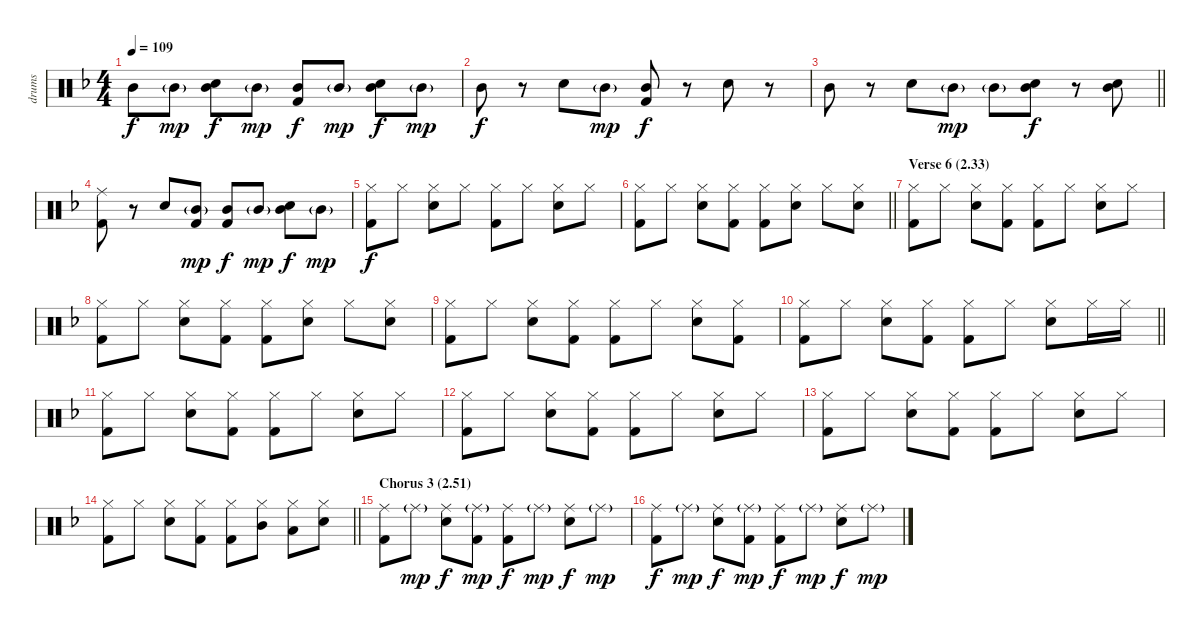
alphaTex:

\track ("drums" "drums") {instrument percussion}
\staff {score}
\articulation defaults
\ts (4 4)
\tempo 109
\clef neutral
\ks f "Mid Tom (hit)".8{dy f} "Mid Tom (hit)"{g}.8{dy mp}
("Mid Tom (hit)" "Electric Snare (hit)").8{dy f} "Mid Tom (hit)"{g}.8{dy mp} ("Mid Tom (hit)" "Kick (hit) 2").8{dy f} "Mid Tom (hit)"{g}.8{dy mp} ("Mid Tom (hit)" "Electric Snare (hit)").8{dy f} "Mid Tom (hit)"{g}.8{dy mp} |
"Mid Tom (hit)".8{dy f} r.8 "Electric Snare (hit)".8 "Mid Tom (hit)"{g}.8{dy mp} ("Mid Tom (hit)" "Kick (hit) 2").8{dy f} r.8 "Electric Snare (hit)".8 r.8 |
\barLineRight lightlight "Mid Tom (hit)".8
r.8 "Electric Snare (hit)".8 "Mid Tom (hit)"{g}.8{dy mp} "Mid Tom (hit)"{g}.8 ("Mid Tom (hit)" "Electric Snare (hit)").8{dy f} r.8 ("Mid Tom (hit)" "Electric Snare (hit)").8 |
("Ride (middle)" "Kick (hit) 2").8 r.8 "Electric Snare (hit)".8 ("Mid Tom (hit)"{g} "Kick (hit) 2").8{dy mp} ("Mid Tom (hit)" "Kick (hit) 2").8{dy f} "Mid Tom (hit)"{g}.8{dy mp} ("Mid Tom (hit)" "Electric Snare (hit)").8{dy f} "Mid Tom (hit)"{g}.8{dy mp} |
("Hi-Hat (closed)" "Kick (hit) 2").8{dy f} "Hi-Hat (closed)".8 ("Hi-Hat (closed)" "Electric Snare (hit)").8 "Hi-Hat (closed)".8 ("Hi-Hat (closed)" "Kick (hit) 2").8 "Hi-Hat (closed)".8 ("Hi-Hat (closed)" "Electric Snare (hit)").8 "Hi-Hat (closed)".8 |
\barLineRight lightlight
("Hi-Hat (closed)" "Kick (hit) 2").8 "Hi-Hat (closed)".8 ("Hi-Hat (closed)" "Electric Snare (hit)").8 ("Hi-Hat (closed)" "Kick (hit) 2").8 ("Hi-Hat (closed)" "Kick (hit) 2").8 ("Hi-Hat (closed)" "Electric Snare (hit)").8 "Hi-Hat (closed)".8 ("Hi-Hat (closed)" "Electric Snare (hit)").8 |
\section ("" "Verse 6 (2.33)")
("Hi-Hat (closed)" "Kick (hit) 2").8 "Hi-Hat (closed)".8 ("Hi-Hat (closed)" "Electric Snare (hit)").8 ("Hi-Hat (closed)" "Kick (hit) 2").8 ("Hi-Hat (closed)" "Kick (hit) 2").8 "Hi-Hat (closed)".8 ("Hi-Hat (closed)" "Electric Snare (hit)").8 "Hi-Hat (closed)".8 |
("Hi-Hat (closed)" "Kick (hit) 2").8 "Hi-Hat (closed)".8 ("Hi-Hat (closed)" "Electric Snare (hit)").8 ("Hi-Hat (closed)" "Kick (hit) 2").8 ("Hi-Hat (closed)" "Kick (hit) 2").8 ("Hi-Hat (closed)" "Electric Snare (hit)").8 "Hi-Hat (closed)".8 ("Hi-Hat (closed)" "Electric Snare (hit)").8 |
("Hi-Hat (closed)" "Kick (hit) 2").8 "Hi-Hat (closed)".8 ("Hi-Hat (closed)" "Electric Snare (hit)").8 ("Hi-Hat (closed)" "Kick (hit) 2").8 ("Hi-Hat (closed)" "Kick (hit) 2").8 "Hi-Hat (closed)".8 ("Hi-Hat (closed)" "Electric Snare (hit)").8 ("Hi-Hat (closed)" "Kick (hit) 2").8 |
\barLineRight lightlight
("Hi-Hat (closed)" "Kick (hit) 2").8 "Hi-Hat (closed)".8 ("Hi-Hat (closed)" "Electric Snare (hit)").8 ("Hi-Hat (closed)" "Kick (hit) 2").8 ("Hi-Hat (closed)" "Kick (hit) 2").8 "Hi-Hat (closed)".8 ("Hi-Hat (closed)" "Electric Snare (hit)").8 "Hi-Hat (closed)".16 "Hi-Hat (closed)".16 |
("Hi-Hat (closed)" "Kick (hit) 2").8 "Hi-Hat (closed)".8 ("Hi-Hat (closed)" "Electric Snare (hit)").8 ("Hi-Hat (closed)" "Kick (hit) 2").8 ("Hi-Hat (closed)" "Kick (hit) 2").8 "Hi-Hat (closed)".8 ("Hi-Hat (closed)" "Electric Snare (hit)").8 "Hi-Hat (closed)".8 |
("Hi-Hat (closed)" "Kick (hit) 2").8 "Hi-Hat (closed)".8 ("Hi-Hat (closed)" "Electric Snare (hit)").8 ("Hi-Hat (closed)" "Kick (hit) 2").8 ("Hi-Hat (closed)" "Kick (hit) 2").8 "Hi-Hat (closed)".8 ("Hi-Hat (closed)" "Electric Snare (hit)").8 "Hi-Hat (closed)".8 |
("Hi-Hat (closed)" "Kick (hit) 2").8 "Hi-Hat (closed)".8 ("Hi-Hat (closed)" "Electric Snare (hit)").8 ("Hi-Hat (closed)" "Kick (hit) 2").8 ("Hi-Hat (closed)" "Kick (hit) 2").8 "Hi-Hat (closed)".8 ("Hi-Hat (closed)" "Electric Snare (hit)").8 "Hi-Hat (closed)".8 |
\barLineRight lightlight
("Hi-Hat (closed)" "Kick (hit) 2").8 "Hi-Hat (closed)".8 ("Hi-Hat (closed)" "Electric Snare (hit)").8 ("Hi-Hat (closed)" "Kick (hit) 2").8 ("Hi-Hat (closed)" "Kick (hit) 2").8 ("Hi-Hat (closed)" "Mid Tom (hit)").8 ("Hi-Hat (closed)" "Low Tom (hit)").8 ("Hi-Hat (closed)" "Electric Snare (hit)").8 |
\section ("" "Chorus 3 (2.51)")
("Ride (middle)" "Kick (hit) 2").8 "Ride (middle)"{g}.8{dy mp} ("Ride (middle)" "Electric Snare (hit)").8{dy f} ("Ride (middle)"{g} "Kick (hit) 2").8{dy mp} ("Ride (middle)" "Kick (hit) 2").8{dy f} "Ride (middle)"{g}.8{dy mp} ("Ride (middle)" "Electric Snare (hit)").8{dy f} "Ride (middle)"{g}.8{dy mp} |
("Ride (middle)" "Kick (hit) 2").8{dy f} "Ride (middle)"{g}.8{dy mp} ("Ride (middle)" "Electric Snare (hit)").8{dy f} ("Ride (middle)"{g} "Kick (hit) 2").8{dy mp} ("Ride (middle)" "Kick (hit) 2").8{dy f} "Ride (middle)"{g}.8{dy mp} ("Ride (middle)" "Electric Snare (hit)").8{dy f} "Ride (middle)"{g}.8{dy mp}
